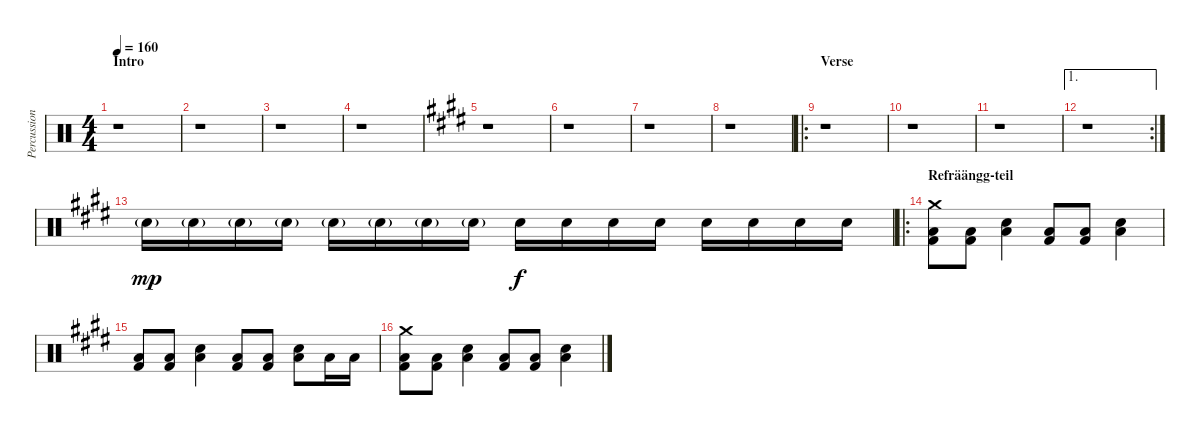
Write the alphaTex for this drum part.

\track ("Percussion" "Percussion") {instrument percussion}
\staff {score}
\articulation defaults
\ts (4 4)
\section ("" "Intro")
\tempo 160
\clef neutral
\ks c
r.1{dy mp} |
r.1 |
r.1 |
r.1 |
\ks e
r.1 |
r.1 |
r.1 |
r.1 |
\ro
\section ("" "Verse")
r.1 |
r.1 |
r.1 |
\ae 1
\rc 2
r.1 |
"Electric Snare (hit)"{g}.16 "Electric Snare (hit)"{g}.16 "Electric Snare (hit)"{g}.16 "Electric Snare (hit)"{g}.16 "Electric Snare (hit)"{g}.16 "Electric Snare (hit)"{g}.16 "Electric Snare (hit)"{g}.16 "Electric Snare (hit)"{g}.16 "Electric Snare (hit)".16{dy f} "Electric Snare (hit)".16 "Electric Snare (hit)".16 "Electric Snare (hit)".16 "Electric Snare (hit)".16 "Electric Snare (hit)".16 "Electric Snare (hit)".16 "Electric Snare (hit)".16 |
\ro
\section ("" "Refräängg-teil")
("Crash medium (hit)" "Low Floor Tom (hit)" "Kick (hit) 2").8 ("Low Floor Tom (hit)" "Kick (hit) 2").8 ("Low Floor Tom (hit)" "Electric Snare (hit)").4 ("Low Floor Tom (hit)" "Kick (hit) 2").8 ("Low Floor Tom (hit)" "Kick (hit) 2").8 ("Low Floor Tom (hit)" "Electric Snare (hit)").4 |
("Low Floor Tom (hit)" "Kick (hit) 2").8 ("Low Floor Tom (hit)" "Kick (hit) 2").8 ("Low Floor Tom (hit)" "Electric Snare (hit)").4 ("Low Floor Tom (hit)" "Kick (hit) 2").8 ("Low Floor Tom (hit)" "Kick (hit) 2").8 ("Low Floor Tom (hit)" "Electric Snare (hit)").8 "Low Floor Tom (hit)".16 "Low Floor Tom (hit)".16 |
("Crash medium (hit)" "Low Floor Tom (hit)" "Kick (hit) 2").8 ("Low Floor Tom (hit)" "Kick (hit) 2").8 ("Low Floor Tom (hit)" "Electric Snare (hit)").4 ("Low Floor Tom (hit)" "Kick (hit) 2").8 ("Low Floor Tom (hit)" "Kick (hit) 2").8 ("Low Floor Tom (hit)" "Electric Snare (hit)").4
